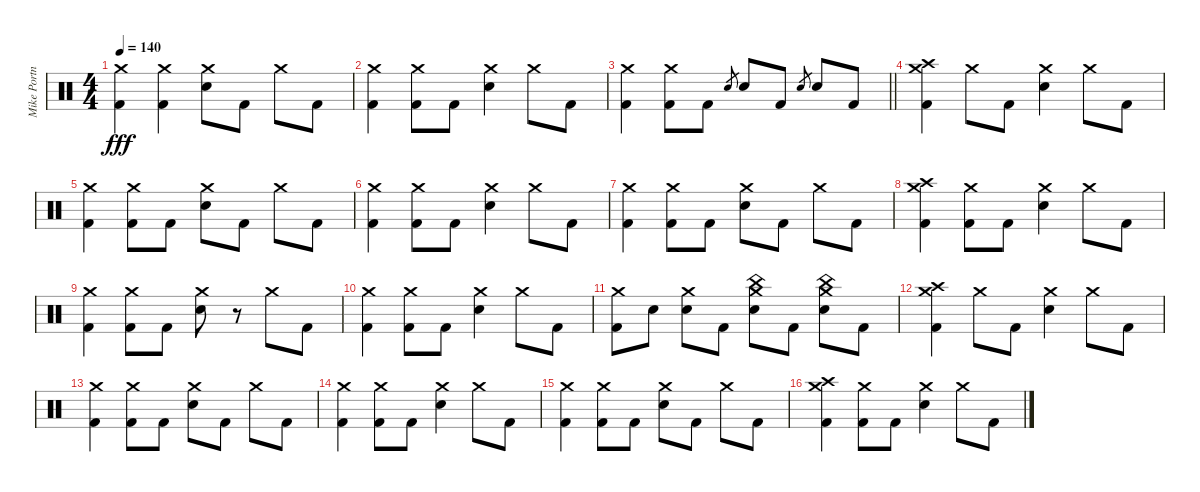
\track ("Mike Portnoy" "Mike Portn") {instrument percussion}
\staff {score}
\articulation defaults
\ts (4 4)
\tempo 140
\clef neutral
\ks c
("Crash medium (hit)" "Kick (hit) 2").4{dy fff} ("Crash medium (hit)" "Kick (hit) 2").4 ("Crash medium (hit)" "Electric Snare (hit)").8 "Kick (hit) 2".8 "Crash medium (hit)".8 "Kick (hit) 2".8 |
("Crash medium (hit)" "Kick (hit) 2").4 ("Crash medium (hit)" "Kick (hit) 2").8 "Kick (hit) 2".8 ("Crash medium (hit)" "Electric Snare (hit)").4 "Crash medium (hit)".8 "Kick (hit) 2".8 |
\barLineRight lightlight
("Crash medium (hit)" "Kick (hit) 2").4 ("Crash medium (hit)" "Kick (hit) 2").8 "Kick (hit) 2".8 "Electric Snare (hit)".8{gr} "Electric Snare (hit)".8 "Kick (hit) 2".8 "Electric Snare (hit)".8{gr} "Electric Snare (hit)".8 "Kick (hit) 2".8 |
("Crash high (hit)" "Crash medium (hit)" "Kick (hit) 2").4 "Crash medium (hit)".8 "Kick (hit) 2".8 ("Crash medium (hit)" "Electric Snare (hit)").4 "Crash medium (hit)".8 "Kick (hit) 2".8 |
("Crash medium (hit)" "Kick (hit) 2").4 ("Crash medium (hit)" "Kick (hit) 2").8 "Kick (hit) 2".8 ("Crash medium (hit)" "Electric Snare (hit)").8 "Kick (hit) 2".8 "Crash medium (hit)".8 "Kick (hit) 2".8 |
("Crash medium (hit)" "Kick (hit) 2").4 ("Crash medium (hit)" "Kick (hit) 2").8 "Kick (hit) 2".8 ("Crash medium (hit)" "Electric Snare (hit)").4 "Crash medium (hit)".8 "Kick (hit) 2".8 |
("Crash medium (hit)" "Kick (hit) 2").4 ("Crash medium (hit)" "Kick (hit) 2").8 "Kick (hit) 2".8 ("Crash medium (hit)" "Electric Snare (hit)").8 "Kick (hit) 2".8 "Crash medium (hit)".8 "Kick (hit) 2".8 |
("Crash high (hit)" "Crash medium (hit)" "Kick (hit) 2").4 ("Crash medium (hit)" "Kick (hit) 2").8 "Kick (hit) 2".8 ("Crash medium (hit)" "Electric Snare (hit)").4 "Crash medium (hit)".8 "Kick (hit) 2".8 |
("Crash medium (hit)" "Kick (hit) 2").4 ("Crash medium (hit)" "Kick (hit) 2").8 "Kick (hit) 2".8 ("Crash medium (hit)" "Electric Snare (hit)").8 r.8 "Crash medium (hit)".8 "Kick (hit) 2".8 |
("Crash medium (hit)" "Kick (hit) 2").4 ("Crash medium (hit)" "Kick (hit) 2").8 "Kick (hit) 2".8 ("Crash medium (hit)" "Electric Snare (hit)").4 "Crash medium (hit)".8 "Kick (hit) 2".8 |
("Crash medium (hit)" "Kick (hit) 2").8 "Electric Snare (hit)".8 ("Crash medium (hit)" "Electric Snare (hit)").8 "Kick (hit) 2".8 ("China (hit)" "Crash medium (hit)" "Electric Snare (hit)").8 "Kick (hit) 2".8 ("China (hit)" "Crash medium (hit)" "Electric Snare (hit)").8 "Kick (hit) 2".8 |
("Crash high (hit)" "Crash medium (hit)" "Kick (hit) 2").4 "Crash medium (hit)".8 "Kick (hit) 2".8 ("Crash medium (hit)" "Electric Snare (hit)").4 "Crash medium (hit)".8 "Kick (hit) 2".8 |
("Crash medium (hit)" "Kick (hit) 2").4 ("Crash medium (hit)" "Kick (hit) 2").8 "Kick (hit) 2".8 ("Crash medium (hit)" "Electric Snare (hit)").8 "Kick (hit) 2".8 "Crash medium (hit)".8 "Kick (hit) 2".8 |
("Crash medium (hit)" "Kick (hit) 2").4 ("Crash medium (hit)" "Kick (hit) 2").8 "Kick (hit) 2".8 ("Crash medium (hit)" "Electric Snare (hit)").4 "Crash medium (hit)".8 "Kick (hit) 2".8 |
("Crash medium (hit)" "Kick (hit) 2").4 ("Crash medium (hit)" "Kick (hit) 2").8 "Kick (hit) 2".8 ("Crash medium (hit)" "Electric Snare (hit)").8 "Kick (hit) 2".8 "Crash medium (hit)".8 "Kick (hit) 2".8 |
("Crash high (hit)" "Crash medium (hit)" "Kick (hit) 2").4 ("Crash medium (hit)" "Kick (hit) 2").8 "Kick (hit) 2".8 ("Crash medium (hit)" "Electric Snare (hit)").4 "Crash medium (hit)".8 "Kick (hit) 2".8
